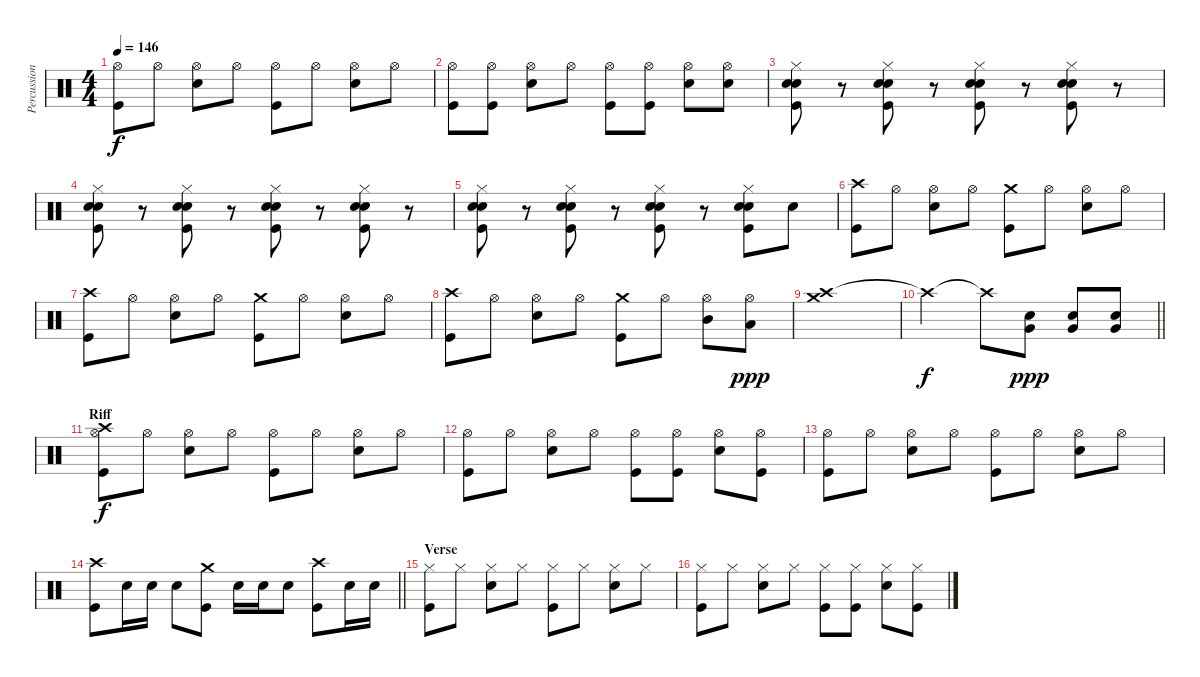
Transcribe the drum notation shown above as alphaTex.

\track ("Percussion" "Percussion") {instrument percussion}
\staff {score}
\articulation defaults
\ts (4 4)
\tempo 146
\clef neutral
\ks c
("Hi-Hat (open)" "Kick (hit)").8{dy f} "Hi-Hat (open)".8 ("Hi-Hat (open)" "Snare (hit) 2").8 "Hi-Hat (open)".8 ("Hi-Hat (open)" "Kick (hit)").8 "Hi-Hat (open)".8 ("Hi-Hat (open)" "Snare (hit) 2").8 "Hi-Hat (open)".8 |
("Hi-Hat (open)" "Kick (hit)").8 ("Hi-Hat (open)" "Kick (hit)").8 ("Hi-Hat (open)" "Snare (hit) 2").8 "Hi-Hat (open)".8 ("Hi-Hat (open)" "Kick (hit)").8 ("Hi-Hat (open)" "Kick (hit)").8 ("Hi-Hat (open)" "Snare (hit) 2").8 ("Hi-Hat (open)" "Snare (hit) 2").8 |
("Hi-Hat (closed)" "Snare (hit) 2" "Snare (hit) 2" "Kick (hit)").8 r.8 ("Hi-Hat (closed)" "Snare (hit) 2" "Snare (hit) 2" "Kick (hit)").8 r.8 ("Hi-Hat (closed)" "Snare (hit) 2" "Snare (hit) 2" "Kick (hit)").8 r.8 ("Hi-Hat (closed)" "Snare (hit) 2" "Snare (hit) 2" "Kick (hit)").8 r.8 |
("Hi-Hat (closed)" "Snare (hit) 2" "Snare (hit) 2" "Kick (hit)").8 r.8 ("Hi-Hat (closed)" "Snare (hit) 2" "Snare (hit) 2" "Kick (hit)").8 r.8 ("Hi-Hat (closed)" "Snare (hit) 2" "Snare (hit) 2" "Kick (hit)").8 r.8 ("Hi-Hat (closed)" "Snare (hit) 2" "Snare (hit) 2" "Kick (hit)").8 r.8 |
("Hi-Hat (closed)" "Snare (hit) 2" "Snare (hit) 2" "Kick (hit)").8 r.8 ("Hi-Hat (closed)" "Snare (hit) 2" "Snare (hit) 2" "Kick (hit)").8 r.8 ("Hi-Hat (closed)" "Snare (hit) 2" "Snare (hit) 2" "Kick (hit)").8 r.8 ("Hi-Hat (closed)" "Snare (hit) 2" "Snare (hit) 2" "Kick (hit)").8 "Snare (hit) 2".8 |
("Crash high (hit)" "Kick (hit)").8 "Hi-Hat (open)".8 ("Hi-Hat (open)" "Snare (hit) 2").8 "Hi-Hat (open)".8 ("Crash medium (hit)" "Kick (hit)").8 "Hi-Hat (open)".8 ("Hi-Hat (open)" "Snare (hit) 2").8 "Hi-Hat (open)".8 |
("Crash high (hit)" "Kick (hit)").8 "Hi-Hat (open)".8 ("Hi-Hat (open)" "Snare (hit) 2").8 "Hi-Hat (open)".8 ("Crash medium (hit)" "Kick (hit)").8 "Hi-Hat (open)".8 ("Hi-Hat (open)" "Snare (hit) 2").8 "Hi-Hat (open)".8 |
("Crash high (hit)" "Kick (hit)").8 "Hi-Hat (open)".8 ("Hi-Hat (open)" "Snare (hit) 2").8 "Hi-Hat (open)".8 ("Crash medium (hit)" "Kick (hit)").8 "Hi-Hat (open)".8 ("Hi-Hat (open)" "Mid Tom (hit)").8 ("Hi-Hat (open)" "Low Tom (hit)").8{dy ppp} |
("Crash high (hit)" "Crash medium (hit)").1 |
\barLineRight lightlight "Crash high (hit)"{t}.2{dy f} "Crash high (hit)"{t}.8
("Snare (hit) 2" "Very Low Tom (hit)").8{dy ppp} ("Snare (hit) 2" "Very Low Tom (hit)").8 ("Snare (hit) 2" "Very Low Tom (hit)").8 |
\section ("" "Riff")
("Crash high (hit)" "Hi-Hat (open)" "Kick (hit)").8{dy f} "Hi-Hat (open)".8 ("Hi-Hat (open)" "Snare (hit) 2").8 "Hi-Hat (open)".8 ("Hi-Hat (open)" "Kick (hit)").8 "Hi-Hat (open)".8 ("Hi-Hat (open)" "Snare (hit) 2").8 "Hi-Hat (open)".8 |
("Hi-Hat (open)" "Kick (hit)").8 "Hi-Hat (open)".8 ("Hi-Hat (open)" "Snare (hit) 2").8 "Hi-Hat (open)".8 ("Hi-Hat (open)" "Kick (hit)").8 ("Hi-Hat (open)" "Kick (hit)").8 ("Hi-Hat (open)" "Snare (hit) 2").8 ("Hi-Hat (open)" "Kick (hit)").8 |
("Hi-Hat (open)" "Kick (hit)").8 "Hi-Hat (open)".8 ("Hi-Hat (open)" "Snare (hit) 2").8 "Hi-Hat (open)".8 ("Hi-Hat (open)" "Kick (hit)").8 "Hi-Hat (open)".8 ("Hi-Hat (open)" "Snare (hit) 2").8 "Hi-Hat (open)".8 |
\barLineRight lightlight
("Crash high (hit)" "Kick (hit)").8 "Snare (hit) 2".16 "Snare (hit) 2".16 "Snare (hit) 2".8 ("Crash medium (hit)" "Kick (hit)").8 "Snare (hit) 2".16 "Snare (hit) 2".16 "Snare (hit) 2".8 ("Crash high (hit)" "Kick (hit)").8 "Snare (hit) 2".16 "Snare (hit) 2".16 |
\section ("" "Verse")
("Hi-Hat (closed)" "Kick (hit)").8 "Hi-Hat (closed)".8 ("Hi-Hat (closed)" "Snare (hit) 2").8 "Hi-Hat (closed)".8 ("Hi-Hat (closed)" "Kick (hit)").8 "Hi-Hat (closed)".8 ("Hi-Hat (closed)" "Snare (hit) 2").8 "Hi-Hat (closed)".8 |
("Hi-Hat (closed)" "Kick (hit)").8 "Hi-Hat (closed)".8 ("Hi-Hat (closed)" "Snare (hit) 2").8 "Hi-Hat (closed)".8 ("Hi-Hat (closed)" "Kick (hit)").8 ("Hi-Hat (closed)" "Kick (hit)").8 ("Hi-Hat (closed)" "Snare (hit) 2").8 ("Hi-Hat (closed)" "Kick (hit)").8
